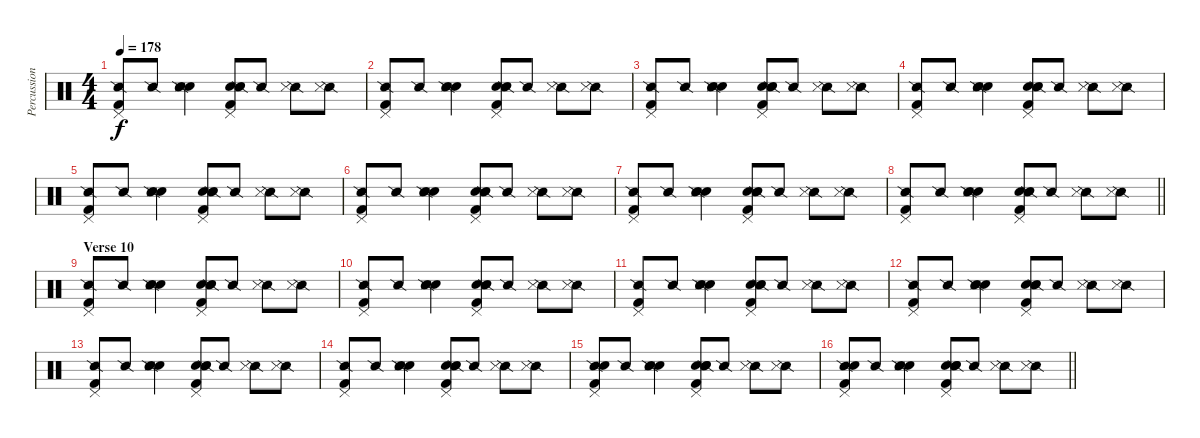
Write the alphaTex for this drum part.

\track ("Percussion" "Percussion") {instrument percussion}
\staff {score}
\articulation defaults
\ts (4 4)
\tempo 178
\clef neutral
\ks c
("Pedal Hi-Hat (hit)" "Kick (hit) 2" "Snare (side stick) 2").8{dy f} "Snare (side stick) 2".8 ("Hand Clap (hit)" "Hand Clap (hit)" "Snare (side stick) 2" "Metronome (hit)").4 ("Pedal Hi-Hat (hit)" "Hand Clap (hit)" "Hand Clap (hit)" "Kick (hit) 2" "Snare (side stick) 2").8 "Snare (side stick) 2".8 ("Snare (side stick) 2" "Metronome (hit)").8 ("Snare (side stick) 2" "Metronome (hit)").8 |
("Pedal Hi-Hat (hit)" "Kick (hit) 2" "Snare (side stick) 2").8 "Snare (side stick) 2".8 ("Hand Clap (hit)" "Hand Clap (hit)" "Snare (side stick) 2" "Metronome (hit)").4 ("Pedal Hi-Hat (hit)" "Hand Clap (hit)" "Hand Clap (hit)" "Kick (hit) 2" "Snare (side stick) 2").8 "Snare (side stick) 2".8 ("Snare (side stick) 2" "Metronome (hit)").8 ("Snare (side stick) 2" "Metronome (hit)").8 |
("Pedal Hi-Hat (hit)" "Kick (hit) 2" "Snare (side stick) 2").8 "Snare (side stick) 2".8 ("Hand Clap (hit)" "Hand Clap (hit)" "Snare (side stick) 2" "Metronome (hit)").4 ("Pedal Hi-Hat (hit)" "Hand Clap (hit)" "Hand Clap (hit)" "Kick (hit) 2" "Snare (side stick) 2").8 "Snare (side stick) 2".8 ("Snare (side stick) 2" "Metronome (hit)").8 ("Snare (side stick) 2" "Metronome (hit)").8 |
("Pedal Hi-Hat (hit)" "Kick (hit) 2" "Snare (side stick) 2").8 "Snare (side stick) 2".8 ("Hand Clap (hit)" "Hand Clap (hit)" "Snare (side stick) 2" "Metronome (hit)").4 ("Pedal Hi-Hat (hit)" "Hand Clap (hit)" "Hand Clap (hit)" "Kick (hit) 2" "Snare (side stick) 2").8 "Snare (side stick) 2".8 ("Snare (side stick) 2" "Metronome (hit)").8 ("Snare (side stick) 2" "Metronome (hit)").8 |
("Pedal Hi-Hat (hit)" "Kick (hit) 2" "Snare (side stick) 2").8 "Snare (side stick) 2".8 ("Hand Clap (hit)" "Hand Clap (hit)" "Snare (side stick) 2" "Metronome (hit)").4 ("Pedal Hi-Hat (hit)" "Hand Clap (hit)" "Hand Clap (hit)" "Kick (hit) 2" "Snare (side stick) 2").8 "Snare (side stick) 2".8 ("Snare (side stick) 2" "Metronome (hit)").8 ("Snare (side stick) 2" "Metronome (hit)").8 |
("Pedal Hi-Hat (hit)" "Kick (hit) 2" "Snare (side stick) 2").8 "Snare (side stick) 2".8 ("Hand Clap (hit)" "Hand Clap (hit)" "Snare (side stick) 2" "Metronome (hit)").4 ("Pedal Hi-Hat (hit)" "Hand Clap (hit)" "Hand Clap (hit)" "Kick (hit) 2" "Snare (side stick) 2").8 "Snare (side stick) 2".8 ("Snare (side stick) 2" "Metronome (hit)").8 ("Snare (side stick) 2" "Metronome (hit)").8 |
("Pedal Hi-Hat (hit)" "Kick (hit) 2" "Snare (side stick) 2").8 "Snare (side stick) 2".8 ("Hand Clap (hit)" "Hand Clap (hit)" "Snare (side stick) 2" "Metronome (hit)").4 ("Pedal Hi-Hat (hit)" "Hand Clap (hit)" "Hand Clap (hit)" "Kick (hit) 2" "Snare (side stick) 2").8 "Snare (side stick) 2".8 ("Snare (side stick) 2" "Metronome (hit)").8 ("Snare (side stick) 2" "Metronome (hit)").8 |
\barLineRight lightlight
("Pedal Hi-Hat (hit)" "Kick (hit) 2" "Snare (side stick) 2").8 "Snare (side stick) 2".8 ("Hand Clap (hit)" "Hand Clap (hit)" "Snare (side stick) 2" "Metronome (hit)").4 ("Pedal Hi-Hat (hit)" "Hand Clap (hit)" "Hand Clap (hit)" "Kick (hit) 2" "Snare (side stick) 2").8 "Snare (side stick) 2".8 ("Snare (side stick) 2" "Metronome (hit)").8 ("Snare (side stick) 2" "Metronome (hit)").8 |
\section ("" "Verse 10")
("Pedal Hi-Hat (hit)" "Kick (hit) 2" "Snare (side stick) 2").8 "Snare (side stick) 2".8 ("Hand Clap (hit)" "Hand Clap (hit)" "Snare (side stick) 2" "Metronome (hit)").4 ("Pedal Hi-Hat (hit)" "Hand Clap (hit)" "Hand Clap (hit)" "Kick (hit) 2" "Snare (side stick) 2").8 "Snare (side stick) 2".8 ("Snare (side stick) 2" "Metronome (hit)").8 ("Snare (side stick) 2" "Metronome (hit)").8 |
("Pedal Hi-Hat (hit)" "Kick (hit) 2" "Snare (side stick) 2").8 "Snare (side stick) 2".8 ("Hand Clap (hit)" "Hand Clap (hit)" "Snare (side stick) 2" "Metronome (hit)").4 ("Pedal Hi-Hat (hit)" "Hand Clap (hit)" "Hand Clap (hit)" "Kick (hit) 2" "Snare (side stick) 2").8 "Snare (side stick) 2".8 ("Snare (side stick) 2" "Metronome (hit)").8 ("Snare (side stick) 2" "Metronome (hit)").8 |
("Pedal Hi-Hat (hit)" "Kick (hit) 2" "Snare (side stick) 2").8 "Snare (side stick) 2".8 ("Hand Clap (hit)" "Hand Clap (hit)" "Snare (side stick) 2" "Metronome (hit)").4 ("Pedal Hi-Hat (hit)" "Hand Clap (hit)" "Hand Clap (hit)" "Kick (hit) 2" "Snare (side stick) 2").8 "Snare (side stick) 2".8 ("Snare (side stick) 2" "Metronome (hit)").8 ("Snare (side stick) 2" "Metronome (hit)").8 |
("Pedal Hi-Hat (hit)" "Kick (hit) 2" "Snare (side stick) 2").8 "Snare (side stick) 2".8 ("Hand Clap (hit)" "Hand Clap (hit)" "Snare (side stick) 2" "Metronome (hit)").4 ("Pedal Hi-Hat (hit)" "Hand Clap (hit)" "Hand Clap (hit)" "Kick (hit) 2" "Snare (side stick) 2").8 "Snare (side stick) 2".8 ("Snare (side stick) 2" "Metronome (hit)").8 ("Snare (side stick) 2" "Metronome (hit)").8 |
("Pedal Hi-Hat (hit)" "Kick (hit) 2" "Snare (side stick) 2").8 "Snare (side stick) 2".8 ("Hand Clap (hit)" "Hand Clap (hit)" "Snare (side stick) 2" "Metronome (hit)").4 ("Pedal Hi-Hat (hit)" "Hand Clap (hit)" "Hand Clap (hit)" "Kick (hit) 2" "Snare (side stick) 2").8 "Snare (side stick) 2".8 ("Snare (side stick) 2" "Metronome (hit)").8 ("Snare (side stick) 2" "Metronome (hit)").8 |
("Pedal Hi-Hat (hit)" "Kick (hit) 2" "Snare (side stick) 2").8 "Snare (side stick) 2".8 ("Hand Clap (hit)" "Hand Clap (hit)" "Snare (side stick) 2" "Metronome (hit)").4 ("Pedal Hi-Hat (hit)" "Hand Clap (hit)" "Hand Clap (hit)" "Kick (hit) 2" "Snare (side stick) 2").8 "Snare (side stick) 2".8 ("Snare (side stick) 2" "Metronome (hit)").8 ("Snare (side stick) 2" "Metronome (hit)").8 |
("Pedal Hi-Hat (hit)" "Kick (hit) 2" "Snare (side stick) 2" "Electric Snare (hit)").8 "Snare (side stick) 2".8 ("Hand Clap (hit)" "Hand Clap (hit)" "Snare (side stick) 2" "Metronome (hit)").4 ("Pedal Hi-Hat (hit)" "Hand Clap (hit)" "Hand Clap (hit)" "Kick (hit) 2" "Snare (side stick) 2" "Electric Snare (hit)").8 "Snare (side stick) 2".8 ("Snare (side stick) 2" "Metronome (hit)").8 ("Snare (side stick) 2" "Metronome (hit)").8 |
\barLineRight lightlight
("Pedal Hi-Hat (hit)" "Kick (hit) 2" "Snare (side stick) 2" "Electric Snare (hit)").8 "Snare (side stick) 2".8 ("Hand Clap (hit)" "Hand Clap (hit)" "Snare (side stick) 2" "Metronome (hit)").4 ("Pedal Hi-Hat (hit)" "Hand Clap (hit)" "Hand Clap (hit)" "Kick (hit) 2" "Snare (side stick) 2" "Electric Snare (hit)").8 "Snare (side stick) 2".8 ("Snare (side stick) 2" "Metronome (hit)").8 ("Snare (side stick) 2" "Metronome (hit)").8
